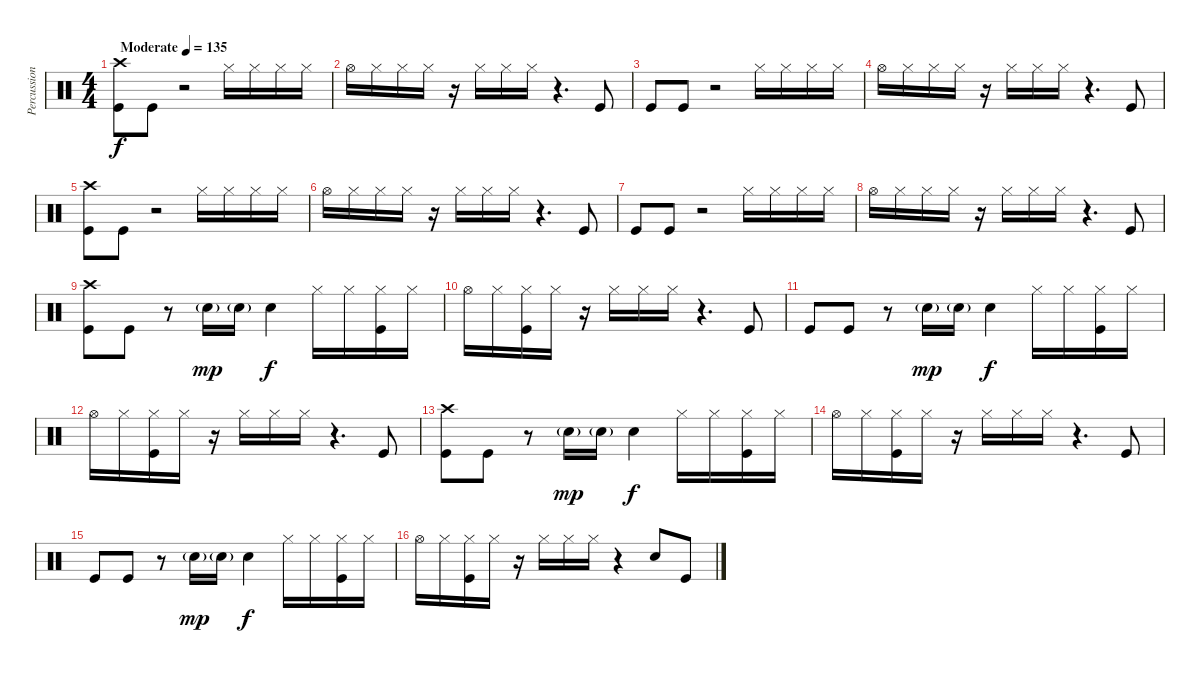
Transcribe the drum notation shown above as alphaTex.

\track ("Percussion" "Percussion") {instrument percussion}
\staff {score}
\articulation defaults
\ts (4 4)
\tempo (135 "Moderate")
\clef neutral
\ks c
("Kick (hit)" "Crash high (hit)").8{dy f} "Kick (hit)".8 r.2 "Hi-Hat (closed)".16 "Hi-Hat (closed)".16 "Hi-Hat (closed)".16 "Hi-Hat (closed)".16 |
"Hi-Hat (open)".16 "Hi-Hat (closed)".16 "Hi-Hat (closed)".16 "Hi-Hat (closed)".16 r.16 "Hi-Hat (closed)".16 "Hi-Hat (closed)".16 "Hi-Hat (closed)".16 r.4{d} "Kick (hit)".8 |
"Kick (hit)".8 "Kick (hit)".8 r.2 "Hi-Hat (closed)".16 "Hi-Hat (closed)".16 "Hi-Hat (closed)".16 "Hi-Hat (closed)".16 |
"Hi-Hat (open)".16 "Hi-Hat (closed)".16 "Hi-Hat (closed)".16 "Hi-Hat (closed)".16 r.16 "Hi-Hat (closed)".16 "Hi-Hat (closed)".16 "Hi-Hat (closed)".16 r.4{d} "Kick (hit)".8 |
("Kick (hit)" "Crash high (hit)").8 "Kick (hit)".8 r.2 "Hi-Hat (closed)".16 "Hi-Hat (closed)".16 "Hi-Hat (closed)".16 "Hi-Hat (closed)".16 |
"Hi-Hat (open)".16 "Hi-Hat (closed)".16 "Hi-Hat (closed)".16 "Hi-Hat (closed)".16 r.16 "Hi-Hat (closed)".16 "Hi-Hat (closed)".16 "Hi-Hat (closed)".16 r.4{d} "Kick (hit)".8 |
"Kick (hit)".8 "Kick (hit)".8 r.2 "Hi-Hat (closed)".16 "Hi-Hat (closed)".16 "Hi-Hat (closed)".16 "Hi-Hat (closed)".16 |
"Hi-Hat (open)".16 "Hi-Hat (closed)".16 "Hi-Hat (closed)".16 "Hi-Hat (closed)".16 r.16 "Hi-Hat (closed)".16 "Hi-Hat (closed)".16 "Hi-Hat (closed)".16 r.4{d} "Kick (hit)".8 |
("Kick (hit)" "Crash high (hit)").8 "Kick (hit)".8 r.8 "Electric Snare (hit)"{g}.16{dy mp} "Electric Snare (hit)"{g}.16 "Electric Snare (hit)".4{dy f} "Hi-Hat (closed)".16 "Hi-Hat (closed)".16 ("Hi-Hat (closed)" "Kick (hit)").16 "Hi-Hat (closed)".16 |
"Hi-Hat (open)".16 "Hi-Hat (closed)".16 ("Hi-Hat (closed)" "Kick (hit)").16 "Hi-Hat (closed)".16 r.16 "Hi-Hat (closed)".16 "Hi-Hat (closed)".16 "Hi-Hat (closed)".16 r.4{d} "Kick (hit)".8 |
"Kick (hit)".8 "Kick (hit)".8 r.8 "Electric Snare (hit)"{g}.16{dy mp} "Electric Snare (hit)"{g}.16 "Electric Snare (hit)".4{dy f} "Hi-Hat (closed)".16 "Hi-Hat (closed)".16 ("Hi-Hat (closed)" "Kick (hit)").16 "Hi-Hat (closed)".16 |
"Hi-Hat (open)".16 "Hi-Hat (closed)".16 ("Hi-Hat (closed)" "Kick (hit)").16 "Hi-Hat (closed)".16 r.16 "Hi-Hat (closed)".16 "Hi-Hat (closed)".16 "Hi-Hat (closed)".16 r.4{d} "Kick (hit)".8 |
("Kick (hit)" "Crash high (hit)").8 "Kick (hit)".8 r.8 "Electric Snare (hit)"{g}.16{dy mp} "Electric Snare (hit)"{g}.16 "Electric Snare (hit)".4{dy f} "Hi-Hat (closed)".16 "Hi-Hat (closed)".16 ("Hi-Hat (closed)" "Kick (hit)").16 "Hi-Hat (closed)".16 |
"Hi-Hat (open)".16 "Hi-Hat (closed)".16 ("Hi-Hat (closed)" "Kick (hit)").16 "Hi-Hat (closed)".16 r.16 "Hi-Hat (closed)".16 "Hi-Hat (closed)".16 "Hi-Hat (closed)".16 r.4{d} "Kick (hit)".8 |
"Kick (hit)".8 "Kick (hit)".8 r.8 "Electric Snare (hit)"{g}.16{dy mp} "Electric Snare (hit)"{g}.16 "Electric Snare (hit)".4{dy f} "Hi-Hat (closed)".16 "Hi-Hat (closed)".16 ("Hi-Hat (closed)" "Kick (hit)").16 "Hi-Hat (closed)".16 |
"Hi-Hat (open)".16 "Hi-Hat (closed)".16 ("Hi-Hat (closed)" "Kick (hit)").16 "Hi-Hat (closed)".16 r.16 "Hi-Hat (closed)".16 "Hi-Hat (closed)".16 "Hi-Hat (closed)".16 r.4 "Electric Snare (hit)".8 "Kick (hit)".8
